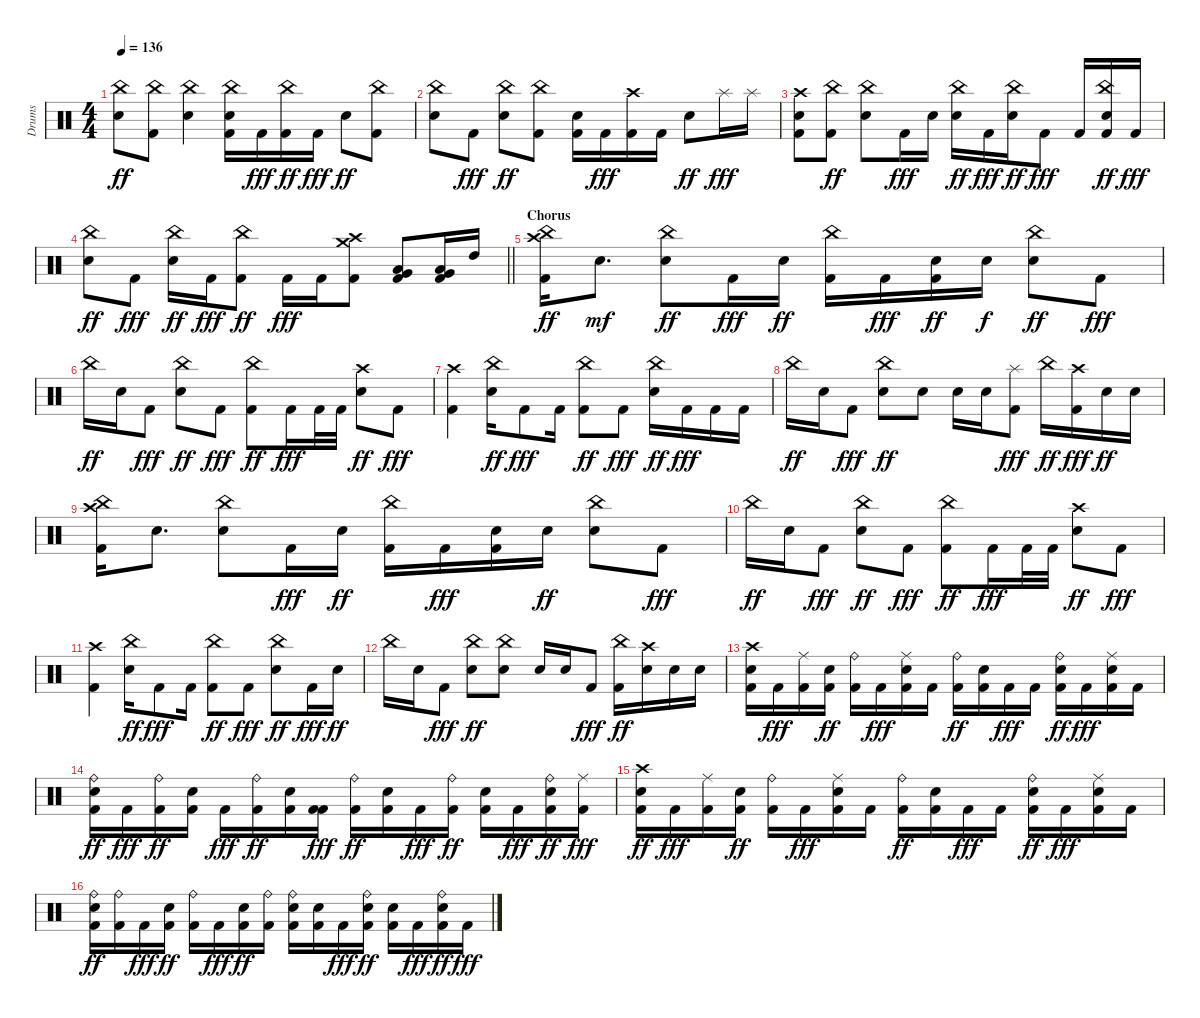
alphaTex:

\track ("Drums" "Drums") {instrument percussion}
\staff {score}
\articulation defaults
\ts (4 4)
\tempo 136
\clef neutral
\ks c
("Snare (hit) 2" "China (hit)").8{dy ff} ("Kick (hit) 2" "China (hit)").8 ("Snare (hit) 2" "China (hit)").4 ("Kick (hit) 2" "Snare (hit) 2" "China (hit)").16 "Kick (hit) 2".16{dy fff} ("Kick (hit) 2" "China (hit)").16{dy ff} "Kick (hit) 2".16{dy fff} "Snare (hit) 2".8{dy ff} ("Kick (hit) 2" "China (hit)").8 |
("Snare (hit) 2" "China (hit)").8 "Kick (hit) 2".8{dy fff} ("Snare (hit) 2" "China (hit)").8{dy ff} ("Kick (hit) 2" "China (hit)").8 ("Kick (hit) 2" "Snare (hit) 2").16 "Kick (hit) 2".16{dy fff} ("Kick (hit) 2" "Crash high (hit)").16 "Kick (hit) 2".16 "Snare (hit) 2".8{dy ff} "Splash (hit)".16{dy fff} "Splash (hit)".16 |
("Kick (hit) 2" "Snare (hit) 2" "Crash high (hit)").8 ("Kick (hit) 2" "China (hit)").8{dy ff} ("Snare (hit) 2" "China (hit)").8 "Kick (hit) 2".16{dy fff} "Snare (hit) 2".16 ("Snare (hit) 2" "China (hit)").16{dy ff} "Kick (hit) 2".16{dy fff} ("Snare (hit) 2" "China (hit)").16{dy ff} "Kick (hit) 2".8{dy fff} "Kick (hit) 2".16 ("Kick (hit) 2" "Snare (hit) 2" "China (hit)").16{dy ff} "Kick (hit) 2".16{dy fff} |
\barLineRight lightlight
("Snare (hit) 2" "China (hit)").8{dy ff} "Kick (hit) 2".8{dy fff} ("Snare (hit) 2" "China (hit)").16{dy ff} "Kick (hit) 2".16{dy fff} ("Kick (hit) 2" "China (hit)").8{dy ff} "Kick (hit) 2".16{dy fff} "Kick (hit) 2".16 ("Kick (hit) 2" "Crash high (hit)" "Crash medium (hit)").8 ("Kick (hit) 2" "Low Tom (hit)" "Very Low Tom (hit)").8 ("Kick (hit) 2" "Low Tom (hit)" "Very Low Tom (hit)").16 "High Tom (hit)".16 |
\section ("" "Chorus")
("Kick (hit) 2" "China (hit)" "Crash high (hit)").16{dy ff} "Snare (hit) 2".8{d dy mf} ("Snare (hit) 2" "China (hit)").8{dy ff} "Kick (hit) 2".16{dy fff} "Snare (hit) 2".16{dy ff} ("Kick (hit) 2" "China (hit)").16 "Kick (hit) 2".16{dy fff} ("Kick (hit) 2" "Snare (hit) 2").16{dy ff} "Snare (hit) 2".16{dy f} ("Snare (hit) 2" "China (hit)").8{dy ff} "Kick (hit) 2".8{dy fff} |
"China (hit)".16{dy ff} "Snare (hit) 2".16 "Kick (hit) 2".8{dy fff} ("Snare (hit) 2" "China (hit)").8{dy ff} "Kick (hit) 2".8{dy fff} ("Kick (hit) 2" "China (hit)").8{dy ff} "Kick (hit) 2".16{dy fff} "Kick (hit) 2".32 "Kick (hit) 2".32 ("Snare (hit) 2" "Crash high (hit)").8{dy ff} "Kick (hit) 2".8{dy fff} |
("Kick (hit) 2" "Crash high (hit)").4 ("Snare (hit) 2" "China (hit)").16{dy ff} "Kick (hit) 2".8{dy fff} "Kick (hit) 2".16 ("Kick (hit) 2" "China (hit)").8{dy ff} "Kick (hit) 2".8{dy fff} ("Snare (hit) 2" "China (hit)").16{dy ff} "Kick (hit) 2".16{dy fff} "Kick (hit) 2".16 "Kick (hit) 2".16 |
"China (hit)".16{dy ff} "Snare (hit) 2".16 "Kick (hit) 2".8{dy fff} ("Snare (hit) 2" "China (hit)").8{dy ff} "Snare (hit) 2".8 "Snare (hit) 2".16 "Snare (hit) 2".16 ("Kick (hit) 2" "Splash (hit)").8{dy fff} "China (hit)".16{dy ff} ("Kick (hit) 2" "Crash high (hit)").16{dy fff} "Snare (hit) 2".16{dy ff} "Snare (hit) 2".16 |
("Kick (hit) 2" "Crash high (hit)" "China (hit)").16 "Snare (hit) 2".8{d} ("Snare (hit) 2" "China (hit)").8 "Kick (hit) 2".16{dy fff} "Snare (hit) 2".16{dy ff} ("Kick (hit) 2" "China (hit)").16 "Kick (hit) 2".16{dy fff} ("Kick (hit) 2" "Snare (hit) 2").16 "Snare (hit) 2".16{dy ff} ("Snare (hit) 2" "China (hit)").8 "Kick (hit) 2".8{dy fff} |
"China (hit)".16{dy ff} "Snare (hit) 2".16 "Kick (hit) 2".8{dy fff} ("Snare (hit) 2" "China (hit)").8{dy ff} "Kick (hit) 2".8{dy fff} ("Kick (hit) 2" "China (hit)").8{dy ff} "Kick (hit) 2".16{dy fff} "Kick (hit) 2".32 "Kick (hit) 2".32 ("Snare (hit) 2" "Crash high (hit)").8{dy ff} "Kick (hit) 2".8{dy fff} |
("Kick (hit) 2" "Crash high (hit)").4 ("Snare (hit) 2" "China (hit)").16{dy ff} "Kick (hit) 2".8{dy fff} "Kick (hit) 2".16 ("Kick (hit) 2" "China (hit)").8{dy ff} "Kick (hit) 2".8{dy fff} ("Snare (hit) 2" "China (hit)").8{dy ff} "Kick (hit) 2".16{dy fff} "Snare (hit) 2".16{dy ff} |
"China (hit)".16 "Snare (hit) 2".16 "Kick (hit) 2".8{dy fff} ("Snare (hit) 2" "China (hit)").8{dy ff} ("Snare (hit) 2" "China (hit)").8 "Snare (hit) 2".16 "Snare (hit) 2".16 "Kick (hit) 2".8{dy fff} ("Kick (hit) 2" "China (hit)").16{dy ff} ("Snare (hit) 2" "Crash high (hit)").16 "Snare (hit) 2".16 "Snare (hit) 2".16 |
("Kick (hit) 2" "Snare (hit) 2" "Crash high (hit)").16 "Kick (hit) 2".16{dy fff} ("Kick (hit) 2" "Ride (middle)").16 ("Kick (hit) 2" "Snare (hit) 2").16{dy ff} ("Kick (hit) 2" "Ride (bell)").16 "Kick (hit) 2".16{dy fff} ("Kick (hit) 2" "Snare (hit) 2" "Ride (middle)").16 "Kick (hit) 2".16 ("Kick (hit) 2" "Ride (bell)").16{dy ff} ("Kick (hit) 2" "Snare (hit) 2").16 "Kick (hit) 2".16{dy fff} "Kick (hit) 2".16 ("Kick (hit) 2" "Snare (hit) 2" "Ride (bell)").16{dy ff} "Kick (hit) 2".16{dy fff} ("Kick (hit) 2" "Snare (hit) 2" "Ride (middle)").16 "Kick (hit) 2".16 |
("Kick (hit) 2" "Snare (hit) 2" "Ride (bell)").16{dy ff} "Kick (hit) 2".16{dy fff} ("Kick (hit) 2" "Ride (bell)").16{dy ff} ("Kick (hit) 2" "Snare (hit) 2").16 "Kick (hit) 2".16{dy fff} ("Kick (hit) 2" "Ride (bell)").16{dy ff} ("Kick (hit) 2" "Snare (hit) 2").16 ("Kick (hit) 2" "Kick (hit) 2").16{dy fff} ("Kick (hit) 2" "Ride (bell)").16{dy ff} ("Kick (hit) 2" "Snare (hit) 2").16 "Kick (hit) 2".16{dy fff} ("Kick (hit) 2" "Ride (bell)").16{dy ff} ("Kick (hit) 2" "Snare (hit) 2").16 "Kick (hit) 2".16{dy fff} ("Kick (hit) 2" "Snare (hit) 2" "Ride (bell)").16{dy ff} ("Kick (hit) 2" "Ride (middle)").16{dy fff} |
("Kick (hit) 2" "Snare (hit) 2" "Crash high (hit)").16{dy ff} "Kick (hit) 2".16{dy fff} ("Kick (hit) 2" "Ride (middle)").16 ("Kick (hit) 2" "Snare (hit) 2").16{dy ff} ("Kick (hit) 2" "Ride (bell)").16 "Kick (hit) 2".16{dy fff} ("Kick (hit) 2" "Snare (hit) 2" "Ride (middle)").16 "Kick (hit) 2".16 ("Kick (hit) 2" "Ride (bell)").16{dy ff} ("Kick (hit) 2" "Snare (hit) 2").16 "Kick (hit) 2".16{dy fff} "Kick (hit) 2".16 ("Kick (hit) 2" "Snare (hit) 2" "Ride (bell)").16{dy ff} "Kick (hit) 2".16{dy fff} ("Kick (hit) 2" "Snare (hit) 2" "Ride (middle)").16 "Kick (hit) 2".16 |
("Kick (hit) 2" "Snare (hit) 2" "Ride (bell)").16{dy ff} ("Kick (hit) 2" "Ride (bell)").16 "Kick (hit) 2".16{dy fff} ("Kick (hit) 2" "Snare (hit) 2").16{dy ff} ("Kick (hit) 2" "Ride (bell)").16 "Kick (hit) 2".16{dy fff} ("Kick (hit) 2" "Snare (hit) 2").16{dy ff} ("Kick (hit) 2" "Ride (bell)").16 ("Kick (hit) 2" "Snare (hit) 2" "Ride (bell)").16 ("Kick (hit) 2" "Snare (hit) 2").16 "Kick (hit) 2".16{dy fff} ("Kick (hit) 2" "Snare (hit) 2" "Ride (bell)").16{dy ff} ("Kick (hit) 2" "Snare (hit) 2").16 "Kick (hit) 2".16{dy fff} ("Kick (hit) 2" "Snare (hit) 2" "Ride (bell)").16{dy ff} "Kick (hit) 2".16{dy fff}
